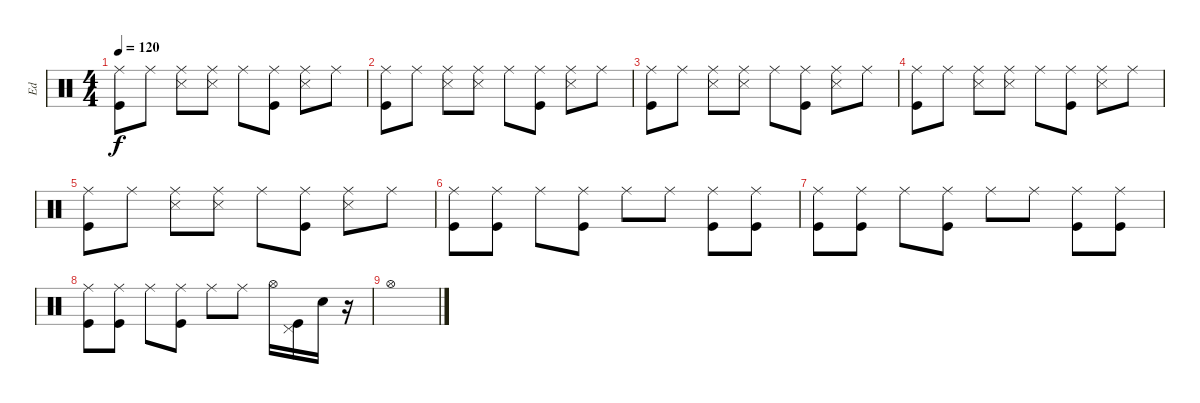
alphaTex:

\track ("Ed" "Ed") {instrument percussion}
\staff {score}
\articulation defaults
\ts (4 4)
\tempo 120
\clef neutral
\ks c
("Kick (hit)" "Ride (middle)").8{dy f volume 16} "Ride (middle)".8 ("Ride (middle)" "Snare (side stick) 3").8 ("Ride (middle)" "Snare (side stick) 3").8 "Ride (middle)".8 ("Ride (middle)" "Kick (hit)").8 ("Ride (middle)" "Snare (side stick) 3").8 "Ride (middle)".8 |
("Kick (hit)" "Ride (middle)").8{volume 16} "Ride (middle)".8 ("Ride (middle)" "Snare (side stick) 3").8 ("Ride (middle)" "Snare (side stick) 3").8 "Ride (middle)".8 ("Ride (middle)" "Kick (hit)").8 ("Ride (middle)" "Snare (side stick) 3").8 "Ride (middle)".8 |
("Kick (hit)" "Ride (middle)").8{volume 16} "Ride (middle)".8 ("Ride (middle)" "Snare (side stick) 3").8 ("Ride (middle)" "Snare (side stick) 3").8 "Ride (middle)".8 ("Ride (middle)" "Kick (hit)").8 ("Ride (middle)" "Snare (side stick) 3").8 "Ride (middle)".8 |
("Kick (hit)" "Ride (middle)").8{volume 16} "Ride (middle)".8 ("Ride (middle)" "Snare (side stick) 3").8 ("Ride (middle)" "Snare (side stick) 3").8 "Ride (middle)".8 ("Ride (middle)" "Kick (hit)").8 ("Ride (middle)" "Snare (side stick) 3").8 "Ride (middle)".8 |
("Kick (hit)" "Ride (middle)").8{volume 16} "Ride (middle)".8 ("Ride (middle)" "Snare (side stick) 3").8 ("Ride (middle)" "Snare (side stick) 3").8 "Ride (middle)".8 ("Ride (middle)" "Kick (hit)").8 ("Ride (middle)" "Snare (side stick) 3").8 "Ride (middle)".8 |
("Kick (hit)" "Ride (middle)").8 ("Ride (middle)" "Kick (hit)").8 "Ride (middle)".8 ("Ride (middle)" "Kick (hit)").8 "Ride (middle)".8 "Ride (middle)".8 ("Ride (middle)" "Kick (hit)").8 ("Ride (middle)" "Kick (hit)").8 |
("Kick (hit)" "Ride (middle)").8 ("Ride (middle)" "Kick (hit)").8 "Ride (middle)".8 ("Ride (middle)" "Kick (hit)").8 "Ride (middle)".8 "Ride (middle)".8 ("Ride (middle)" "Kick (hit)").8 ("Ride (middle)" "Kick (hit)").8 |
("Kick (hit)" "Ride (middle)").8{volume 11} ("Ride (middle)" "Kick (hit)").8 "Ride (middle)".8 ("Ride (middle)" "Kick (hit)").8 "Ride (middle)".8 "Ride (middle)".8 "Hi-Hat (open)".16 ("Kick (hit)" "Pedal Hi-Hat (hit)").16 "Snare (hit) 2".16 r.16 |
"Hi-Hat (open)".1
